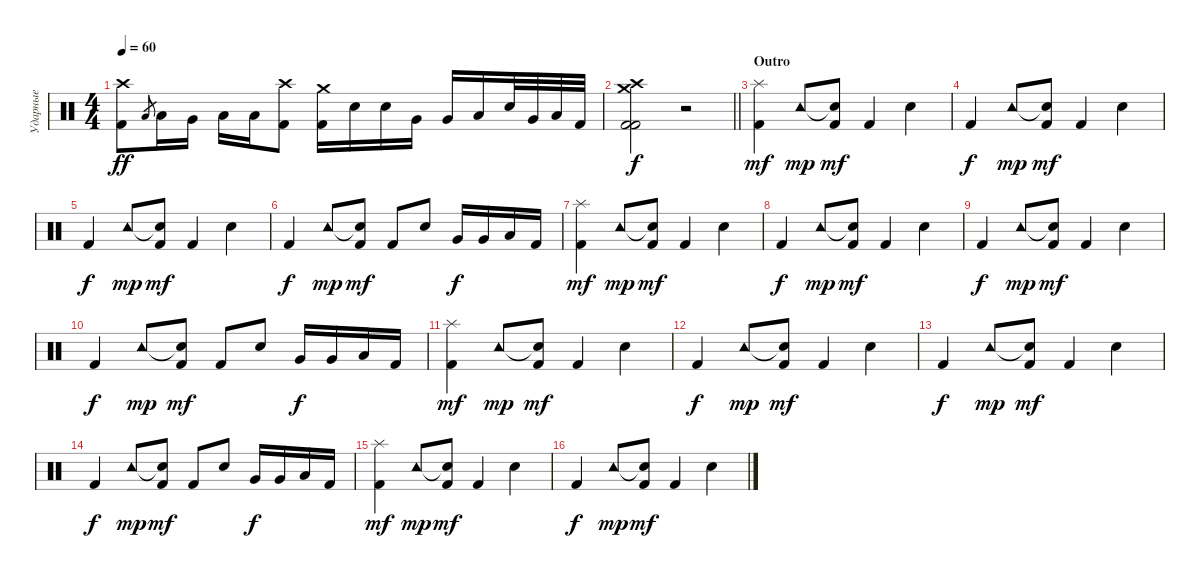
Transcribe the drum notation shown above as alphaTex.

\track ("Ударные" "Ударные") {instrument percussion}
\staff {score}
\articulation defaults
\ts (4 4)
\tempo 60
\clef neutral
\ks c
("Crash high (hit)" "Kick (hit) 2").8{dy ff} "Low Tom (hit)".8{gr} "Low Tom (hit)".16 "Very Low Tom (hit)".16 "Low Floor Tom (hit)".16 "Low Floor Tom (hit)".16 ("Crash high (hit)" "Kick (hit) 2").8 ("Crash medium (hit)" "Kick (hit) 2").16 "Snare (hit) 2".16 "Snare (hit) 2".16 "Very Low Tom (hit)".16 "Very Low Tom (hit)".16 "Low Floor Tom (hit)".16 "Snare (hit) 2".32 "Very Low Tom (hit)".32 "Low Floor Tom (hit)".32 "Kick (hit) 2".32 |
\barLineRight lightlight
("Crash high (hit)" "Crash medium (hit)" "Kick (hit) 2" "Kick (hit) 2").2{dy f} r.2 |
\section ("" "Outro")
("Splash (hit)" "Kick (hit) 2").4{dy mf} "Tambourine (hit)".8{dy mp} ("Snare (hit)"{t} "Kick (hit) 2").8{dy mf} "Kick (hit) 2".4 "Snare (hit) 2".4 |
"Kick (hit) 2".4{dy f} "Tambourine (hit)".8{dy mp} ("Snare (hit)"{t} "Kick (hit) 2").8{dy mf} "Kick (hit) 2".4 "Snare (hit) 2".4 |
"Kick (hit) 2".4{dy f} "Tambourine (hit)".8{dy mp} ("Snare (hit)"{t} "Kick (hit) 2").8{dy mf} "Kick (hit) 2".4 "Snare (hit) 2".4 |
"Kick (hit) 2".4{dy f} "Tambourine (hit)".8{dy mp} ("Snare (hit)"{t} "Kick (hit) 2").8{dy mf} "Kick (hit) 2".8 "Snare (hit) 2".8 "Very Low Tom (hit)".16{dy f} "Very Low Tom (hit)".16 "Low Floor Tom (hit)".16 "Kick (hit) 2".16 |
("Splash (hit)" "Kick (hit) 2").4{dy mf} "Tambourine (hit)".8{dy mp} ("Snare (hit)"{t} "Kick (hit) 2").8{dy mf} "Kick (hit) 2".4 "Snare (hit) 2".4 |
"Kick (hit) 2".4{dy f} "Tambourine (hit)".8{dy mp} ("Snare (hit)"{t} "Kick (hit) 2").8{dy mf} "Kick (hit) 2".4 "Snare (hit) 2".4 |
"Kick (hit) 2".4{dy f} "Tambourine (hit)".8{dy mp} ("Snare (hit)"{t} "Kick (hit) 2").8{dy mf} "Kick (hit) 2".4 "Snare (hit) 2".4 |
"Kick (hit) 2".4{dy f} "Tambourine (hit)".8{dy mp} ("Snare (hit)"{t} "Kick (hit) 2").8{dy mf} "Kick (hit) 2".8 "Snare (hit) 2".8 "Very Low Tom (hit)".16{dy f} "Very Low Tom (hit)".16 "Low Floor Tom (hit)".16 "Kick (hit) 2".16 |
("Splash (hit)" "Kick (hit) 2").4{dy mf} "Tambourine (hit)".8{dy mp} ("Snare (hit)"{t} "Kick (hit) 2").8{dy mf} "Kick (hit) 2".4 "Snare (hit) 2".4 |
"Kick (hit) 2".4{dy f} "Tambourine (hit)".8{dy mp} ("Snare (hit)"{t} "Kick (hit) 2").8{dy mf} "Kick (hit) 2".4 "Snare (hit) 2".4 |
"Kick (hit) 2".4{dy f} "Tambourine (hit)".8{dy mp} ("Snare (hit)"{t} "Kick (hit) 2").8{dy mf} "Kick (hit) 2".4 "Snare (hit) 2".4 |
"Kick (hit) 2".4{dy f} "Tambourine (hit)".8{dy mp} ("Snare (hit)"{t} "Kick (hit) 2").8{dy mf} "Kick (hit) 2".8 "Snare (hit) 2".8 "Very Low Tom (hit)".16{dy f} "Very Low Tom (hit)".16 "Low Floor Tom (hit)".16 "Kick (hit) 2".16 |
("Splash (hit)" "Kick (hit) 2").4{dy mf} "Tambourine (hit)".8{dy mp} ("Snare (hit)"{t} "Kick (hit) 2").8{dy mf} "Kick (hit) 2".4 "Snare (hit) 2".4 |
"Kick (hit) 2".4{dy f} "Tambourine (hit)".8{dy mp} ("Snare (hit)"{t} "Kick (hit) 2").8{dy mf} "Kick (hit) 2".4 "Snare (hit) 2".4
